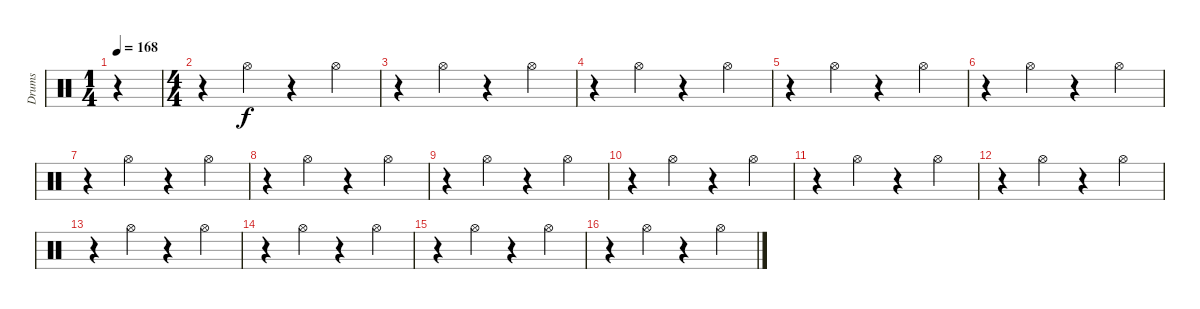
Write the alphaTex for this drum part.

\track ("Drums" "Drums") {instrument percussion}
\staff {score}
\articulation defaults
\ts (1 4)
\tempo 168
\tempo 148
\tempo 168
\clef neutral
\ks c
r.4{dy f} |
\ts (4 4)
r.4 "Hi-Hat (open)".4 r.4 "Hi-Hat (open)".4 |
r.4 "Hi-Hat (open)".4 r.4 "Hi-Hat (open)".4 |
r.4 "Hi-Hat (open)".4 r.4 "Hi-Hat (open)".4 |
r.4 "Hi-Hat (open)".4 r.4 "Hi-Hat (open)".4 |
r.4 "Hi-Hat (open)".4 r.4 "Hi-Hat (open)".4 |
r.4 "Hi-Hat (open)".4 r.4 "Hi-Hat (open)".4 |
r.4 "Hi-Hat (open)".4 r.4 "Hi-Hat (open)".4 |
r.4 "Hi-Hat (open)".4 r.4 "Hi-Hat (open)".4 |
r.4 "Hi-Hat (open)".4 r.4 "Hi-Hat (open)".4 |
r.4 "Hi-Hat (open)".4 r.4 "Hi-Hat (open)".4 |
r.4 "Hi-Hat (open)".4 r.4 "Hi-Hat (open)".4 |
r.4 "Hi-Hat (open)".4 r.4 "Hi-Hat (open)".4 |
r.4 "Hi-Hat (open)".4 r.4 "Hi-Hat (open)".4 |
r.4 "Hi-Hat (open)".4 r.4 "Hi-Hat (open)".4 |
r.4 "Hi-Hat (open)".4 r.4 "Hi-Hat (open)".4
